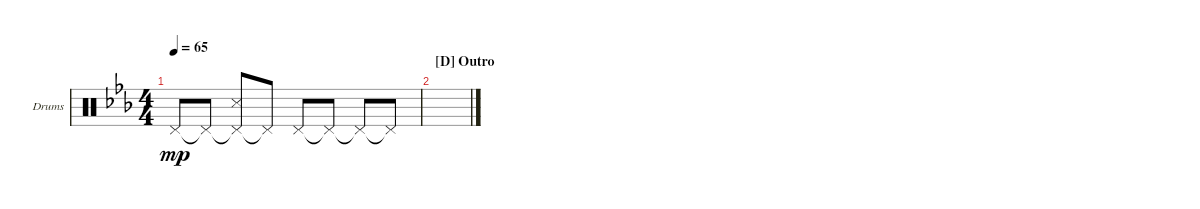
\defaultSystemsLayout 4
\bracketExtendMode groupsimilarinstruments
\firstSystemTrackNameOrientation horizontal
\otherSystemsTrackNameOrientation horizontal
\track ("Drum" "Drums") {multiBarRest instrument percussion}
\staff {score}
\articulation defaults
\ts (4 4)
\tempo 65
\clef neutral
\ks cminor "Pedal Hi-Hat (hit)".8{dy mp} "Pedal Hi-Hat (hit)"{t}.8
("Pedal Hi-Hat (hit)"{t} "Snare (side stick) 3").8 "Pedal Hi-Hat (hit)"{t}.8 "Pedal Hi-Hat (hit)".8 "Pedal Hi-Hat (hit)"{t}.8 "Pedal Hi-Hat (hit)"{t}.8 "Pedal Hi-Hat (hit)"{t}.8 |
\section ("D" "Outro")
